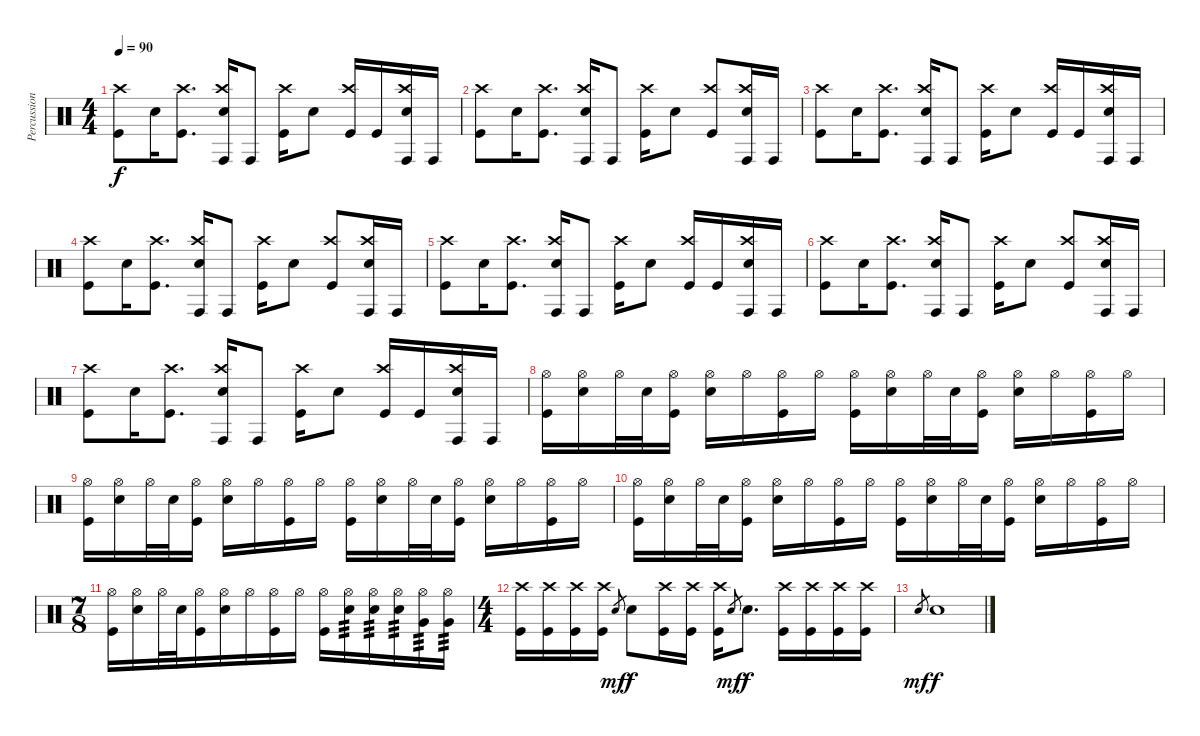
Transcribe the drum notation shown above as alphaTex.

\track ("Percussion" "Percussion") {instrument percussion}
\staff {score}
\articulation defaults
\ts (4 4)
\tempo 90
\clef neutral
\ks c
("Crash high (hit)" "Kick (hit)").8{dy f} "Snare (hit) 2".16 ("Crash high (hit)" "Kick (hit)").8{d} ("Crash high (hit)" "Snare (hit) 2" "Conga high (hit)").16 "Conga high (hit)".8 ("Crash high (hit)" "Kick (hit)").16 "Snare (hit) 2".8 ("Crash high (hit)" "Kick (hit)").16 "Kick (hit)".16 ("Crash high (hit)" "Snare (hit) 2" "Conga high (hit)").16 "Conga high (hit)".16 |
("Crash high (hit)" "Kick (hit)").8 "Snare (hit) 2".16 ("Crash high (hit)" "Kick (hit)").8{d} ("Crash high (hit)" "Snare (hit) 2" "Conga high (hit)").16 "Conga high (hit)".8 ("Crash high (hit)" "Kick (hit)").16 "Snare (hit) 2".8 ("Crash high (hit)" "Kick (hit)").8 ("Crash high (hit)" "Snare (hit) 2" "Conga high (hit)").16 "Conga high (hit)".16 |
("Crash high (hit)" "Kick (hit)").8 "Snare (hit) 2".16 ("Crash high (hit)" "Kick (hit)").8{d} ("Crash high (hit)" "Snare (hit) 2" "Conga high (hit)").16 "Conga high (hit)".8 ("Crash high (hit)" "Kick (hit)").16 "Snare (hit) 2".8 ("Crash high (hit)" "Kick (hit)").16 "Kick (hit)".16 ("Crash high (hit)" "Snare (hit) 2" "Conga high (hit)").16 "Conga high (hit)".16 |
("Crash high (hit)" "Kick (hit)").8 "Snare (hit) 2".16 ("Crash high (hit)" "Kick (hit)").8{d} ("Crash high (hit)" "Snare (hit) 2" "Conga high (hit)").16 "Conga high (hit)".8 ("Crash high (hit)" "Kick (hit)").16 "Snare (hit) 2".8 ("Crash high (hit)" "Kick (hit)").8 ("Crash high (hit)" "Snare (hit) 2" "Conga high (hit)").16 "Conga high (hit)".16 |
("Crash high (hit)" "Kick (hit)").8 "Snare (hit) 2".16 ("Crash high (hit)" "Kick (hit)").8{d} ("Crash high (hit)" "Snare (hit) 2" "Conga high (hit)").16 "Conga high (hit)".8 ("Crash high (hit)" "Kick (hit)").16 "Snare (hit) 2".8 ("Crash high (hit)" "Kick (hit)").16 "Kick (hit)".16 ("Crash high (hit)" "Snare (hit) 2" "Conga high (hit)").16 "Conga high (hit)".16 |
("Crash high (hit)" "Kick (hit)").8 "Snare (hit) 2".16 ("Crash high (hit)" "Kick (hit)").8{d} ("Crash high (hit)" "Snare (hit) 2" "Conga high (hit)").16 "Conga high (hit)".8 ("Crash high (hit)" "Kick (hit)").16 "Snare (hit) 2".8 ("Crash high (hit)" "Kick (hit)").8 ("Crash high (hit)" "Snare (hit) 2" "Conga high (hit)").16 "Conga high (hit)".16 |
("Crash high (hit)" "Kick (hit)").8 "Snare (hit) 2".16 ("Crash high (hit)" "Kick (hit)").8{d} ("Crash high (hit)" "Snare (hit) 2" "Conga high (hit)").16 "Conga high (hit)".8 ("Crash high (hit)" "Kick (hit)").16 "Snare (hit) 2".8 ("Crash high (hit)" "Kick (hit)").16 "Kick (hit)".16 ("Crash high (hit)" "Snare (hit) 2" "Conga high (hit)").16 "Conga high (hit)".16 |
("Hi-Hat (open)" "Kick (hit)").16 ("Hi-Hat (open)" "Snare (hit) 2").16 "Hi-Hat (open)".32 "Snare (hit) 2".32 ("Hi-Hat (open)" "Kick (hit)").16 ("Hi-Hat (open)" "Snare (hit) 2").16 "Hi-Hat (open)".16 ("Hi-Hat (open)" "Kick (hit)").16 "Hi-Hat (open)".16 ("Hi-Hat (open)" "Kick (hit)").16 ("Hi-Hat (open)" "Snare (hit) 2").16 "Hi-Hat (open)".32 "Snare (hit) 2".32 ("Hi-Hat (open)" "Kick (hit)").16 ("Hi-Hat (open)" "Snare (hit) 2").16 "Hi-Hat (open)".16 ("Hi-Hat (open)" "Kick (hit)").16 "Hi-Hat (open)".16 |
("Hi-Hat (open)" "Kick (hit)").16 ("Hi-Hat (open)" "Snare (hit) 2").16 "Hi-Hat (open)".32 "Snare (hit) 2".32 ("Hi-Hat (open)" "Kick (hit)").16 ("Hi-Hat (open)" "Snare (hit) 2").16 "Hi-Hat (open)".16 ("Hi-Hat (open)" "Kick (hit)").16 "Hi-Hat (open)".16 ("Hi-Hat (open)" "Kick (hit)").16 ("Hi-Hat (open)" "Snare (hit) 2").16 "Hi-Hat (open)".32 "Snare (hit) 2".32 ("Hi-Hat (open)" "Kick (hit)").16 ("Hi-Hat (open)" "Snare (hit) 2").16 "Hi-Hat (open)".16 ("Hi-Hat (open)" "Kick (hit)").16 "Hi-Hat (open)".16 |
("Hi-Hat (open)" "Kick (hit)").16 ("Hi-Hat (open)" "Snare (hit) 2").16 "Hi-Hat (open)".32 "Snare (hit) 2".32 ("Hi-Hat (open)" "Kick (hit)").16 ("Hi-Hat (open)" "Snare (hit) 2").16 "Hi-Hat (open)".16 ("Hi-Hat (open)" "Kick (hit)").16 "Hi-Hat (open)".16 ("Hi-Hat (open)" "Kick (hit)").16 ("Hi-Hat (open)" "Snare (hit) 2").16 "Hi-Hat (open)".32 "Snare (hit) 2".32 ("Hi-Hat (open)" "Kick (hit)").16 ("Hi-Hat (open)" "Snare (hit) 2").16 "Hi-Hat (open)".16 ("Hi-Hat (open)" "Kick (hit)").16 "Hi-Hat (open)".16 |
\ts (7 8)
("Hi-Hat (open)" "Kick (hit)").16 ("Hi-Hat (open)" "Snare (hit) 2").16 "Hi-Hat (open)".32 "Snare (hit) 2".32 ("Hi-Hat (open)" "Kick (hit)").16 ("Hi-Hat (open)" "Snare (hit) 2").16 "Hi-Hat (open)".16 ("Hi-Hat (open)" "Kick (hit)").16 "Hi-Hat (open)".16 ("Hi-Hat (open)" "Kick (hit)").16 ("Hi-Hat (open)" "Snare (hit) 2").16{tp 3} ("Hi-Hat (open)" "Snare (hit) 2").16{tp 3} ("Hi-Hat (open)" "Snare (hit) 2").16{tp 3} ("Hi-Hat (open)" "Very Low Tom (hit)").16{tp 3} ("Hi-Hat (open)" "Very Low Tom (hit)").16{tp 3} |
\ts (4 4)
("Crash high (hit)" "Kick (hit)").16 ("Crash high (hit)" "Kick (hit)").16 ("Crash high (hit)" "Kick (hit)").16 ("Crash high (hit)" "Kick (hit)").16 "Snare (hit) 2".8{gr dy mf} "Snare (hit) 2".8{dy f} ("Crash high (hit)" "Kick (hit)").16 ("Crash high (hit)" "Kick (hit)").16 ("Crash high (hit)" "Kick (hit)").16 "Snare (hit) 2".8{gr dy mf} "Snare (hit) 2".8{d dy f} ("Crash high (hit)" "Kick (hit)").16 ("Crash high (hit)" "Kick (hit)").16 ("Crash high (hit)" "Kick (hit)").16 ("Crash high (hit)" "Kick (hit)").16 |
"Snare (hit) 2".8{gr dy mf} "Snare (hit) 2".1{dy f}
